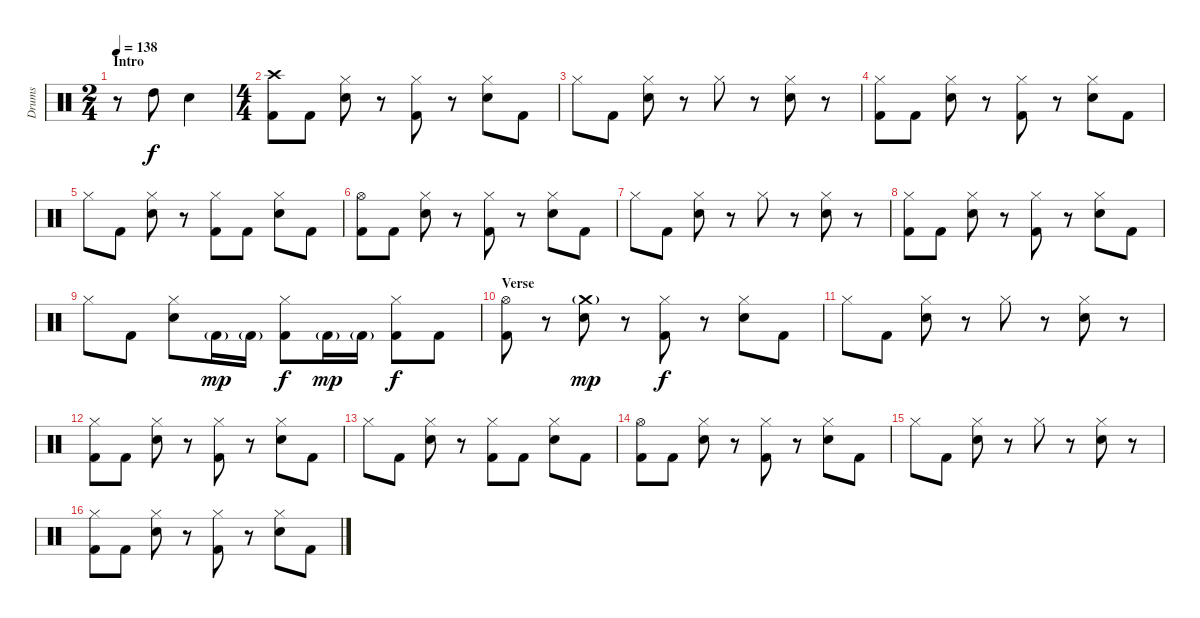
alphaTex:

\track ("Drums" "Drums") {instrument percussion}
\staff {score}
\articulation defaults
\ts (2 4)
\section ("" "Intro")
\tempo 138
\clef neutral
\ks c
r.8{dy f} "High Tom (hit)".8 "Electric Snare (hit)".4 |
\ts (4 4)
("Crash high (hit)" "Kick (hit) 2").8 "Kick (hit) 2".8 ("Hi-Hat (closed)" "Electric Snare (hit)").8 r.8 ("Hi-Hat (closed)" "Kick (hit) 2").8 r.8 ("Hi-Hat (closed)" "Electric Snare (hit)").8 "Kick (hit) 2".8 |
"Hi-Hat (closed)".8 "Kick (hit) 2".8 ("Hi-Hat (closed)" "Electric Snare (hit)").8 r.8 "Hi-Hat (closed)".8 r.8 ("Hi-Hat (closed)" "Electric Snare (hit)").8 r.8 |
("Hi-Hat (closed)" "Kick (hit) 2").8 "Kick (hit) 2".8 ("Hi-Hat (closed)" "Electric Snare (hit)").8 r.8 ("Hi-Hat (closed)" "Kick (hit) 2").8 r.8 ("Hi-Hat (closed)" "Electric Snare (hit)").8 "Kick (hit) 2".8 |
"Hi-Hat (closed)".8 "Kick (hit) 2".8 ("Hi-Hat (closed)" "Electric Snare (hit)").8 r.8 ("Hi-Hat (closed)" "Kick (hit) 2").8 "Kick (hit) 2".8 ("Hi-Hat (closed)" "Electric Snare (hit)").8 "Kick (hit) 2".8 |
("Hi-Hat (open)" "Kick (hit) 2").8 "Kick (hit) 2".8 ("Hi-Hat (closed)" "Electric Snare (hit)").8 r.8 ("Hi-Hat (closed)" "Kick (hit) 2").8 r.8 ("Hi-Hat (closed)" "Electric Snare (hit)").8 "Kick (hit) 2".8 |
"Hi-Hat (closed)".8 "Kick (hit) 2".8 ("Hi-Hat (closed)" "Electric Snare (hit)").8 r.8 "Hi-Hat (closed)".8 r.8 ("Hi-Hat (closed)" "Electric Snare (hit)").8 r.8 |
("Hi-Hat (closed)" "Kick (hit) 2").8 "Kick (hit) 2".8 ("Hi-Hat (closed)" "Electric Snare (hit)").8 r.8 ("Hi-Hat (closed)" "Kick (hit) 2").8 r.8 ("Hi-Hat (closed)" "Electric Snare (hit)").8 "Kick (hit) 2".8 |
"Hi-Hat (closed)".8 "Kick (hit) 2".8 ("Hi-Hat (closed)" "Electric Snare (hit)").8 "Kick (hit) 2"{g}.16{dy mp} "Kick (hit) 2"{g}.16 ("Hi-Hat (closed)" "Kick (hit) 2").8{dy f} "Kick (hit) 2"{g}.16{dy mp} "Kick (hit) 2"{g}.16 ("Hi-Hat (closed)" "Kick (hit) 2").8{dy f} "Kick (hit) 2".8 |
\section ("" "Verse")
("Hi-Hat (open)" "Kick (hit) 2").8 r.8 ("Crash medium (hit)"{g} "Electric Snare (hit)").8{dy mp} r.8 ("Hi-Hat (closed)" "Kick (hit) 2").8{dy f} r.8 ("Hi-Hat (closed)" "Electric Snare (hit)").8 "Kick (hit) 2".8 |
"Hi-Hat (closed)".8 "Kick (hit) 2".8 ("Hi-Hat (closed)" "Electric Snare (hit)").8 r.8 "Hi-Hat (closed)".8 r.8 ("Hi-Hat (closed)" "Electric Snare (hit)").8 r.8 |
("Hi-Hat (closed)" "Kick (hit) 2").8 "Kick (hit) 2".8 ("Hi-Hat (closed)" "Electric Snare (hit)").8 r.8 ("Hi-Hat (closed)" "Kick (hit) 2").8 r.8 ("Hi-Hat (closed)" "Electric Snare (hit)").8 "Kick (hit) 2".8 |
"Hi-Hat (closed)".8 "Kick (hit) 2".8 ("Hi-Hat (closed)" "Electric Snare (hit)").8 r.8 ("Hi-Hat (closed)" "Kick (hit) 2").8 "Kick (hit) 2".8 ("Hi-Hat (closed)" "Electric Snare (hit)").8 "Kick (hit) 2".8 |
("Hi-Hat (open)" "Kick (hit) 2").8 "Kick (hit) 2".8 ("Hi-Hat (closed)" "Electric Snare (hit)").8 r.8 ("Hi-Hat (closed)" "Kick (hit) 2").8 r.8 ("Hi-Hat (closed)" "Electric Snare (hit)").8 "Kick (hit) 2".8 |
"Hi-Hat (closed)".8 "Kick (hit) 2".8 ("Hi-Hat (closed)" "Electric Snare (hit)").8 r.8 "Hi-Hat (closed)".8 r.8 ("Hi-Hat (closed)" "Electric Snare (hit)").8 r.8 |
("Hi-Hat (closed)" "Kick (hit) 2").8 "Kick (hit) 2".8 ("Hi-Hat (closed)" "Electric Snare (hit)").8 r.8 ("Hi-Hat (closed)" "Kick (hit) 2").8 r.8 ("Hi-Hat (closed)" "Electric Snare (hit)").8 "Kick (hit) 2".8
